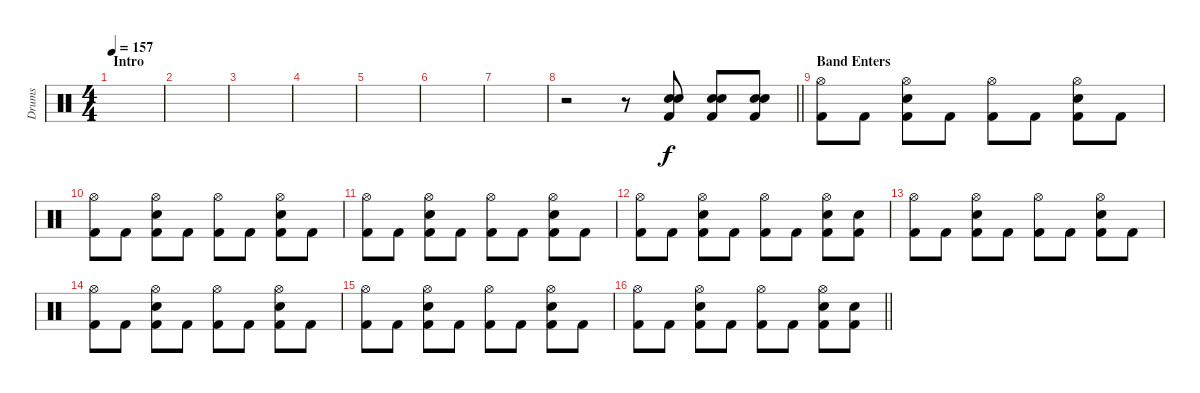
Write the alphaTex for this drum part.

\track ("Drums" "Drums") {instrument percussion}
\staff {score}
\articulation defaults
\ts (4 4)
\section ("" "Intro")
\tempo 157
\clef neutral
\ks c
|
|
|
|
|
|
|
\barLineRight lightlight
r.2 r.8 ("Kick (hit) 2" "Electric Snare (hit)" "Electric Snare (hit)").8 ("Kick (hit) 2" "Electric Snare (hit)" "Electric Snare (hit)").8 ("Kick (hit) 2" "Electric Snare (hit)" "Electric Snare (hit)").8 |
\section ("" "Band Enters")
("Hi-Hat (open)" "Kick (hit) 2").8 "Kick (hit) 2".8 ("Hi-Hat (open)" "Electric Snare (hit)" "Kick (hit) 2").8 "Kick (hit) 2".8 ("Hi-Hat (open)" "Kick (hit) 2").8 "Kick (hit) 2".8 ("Hi-Hat (open)" "Kick (hit) 2" "Electric Snare (hit)").8 "Kick (hit) 2".8 |
("Hi-Hat (open)" "Kick (hit) 2").8 "Kick (hit) 2".8 ("Hi-Hat (open)" "Electric Snare (hit)" "Kick (hit) 2").8 "Kick (hit) 2".8 ("Hi-Hat (open)" "Kick (hit) 2").8 "Kick (hit) 2".8 ("Hi-Hat (open)" "Kick (hit) 2" "Electric Snare (hit)").8 "Kick (hit) 2".8 |
("Hi-Hat (open)" "Kick (hit) 2").8 "Kick (hit) 2".8 ("Hi-Hat (open)" "Electric Snare (hit)" "Kick (hit) 2").8 "Kick (hit) 2".8 ("Hi-Hat (open)" "Kick (hit) 2").8 "Kick (hit) 2".8 ("Hi-Hat (open)" "Kick (hit) 2" "Electric Snare (hit)").8 "Kick (hit) 2".8 |
("Hi-Hat (open)" "Kick (hit) 2").8 "Kick (hit) 2".8 ("Hi-Hat (open)" "Electric Snare (hit)" "Kick (hit) 2").8 "Kick (hit) 2".8 ("Hi-Hat (open)" "Kick (hit) 2").8 "Kick (hit) 2".8 ("Hi-Hat (open)" "Kick (hit) 2" "Electric Snare (hit)").8 ("Electric Snare (hit)" "Kick (hit) 2").8 |
("Hi-Hat (open)" "Kick (hit) 2").8 "Kick (hit) 2".8 ("Hi-Hat (open)" "Electric Snare (hit)" "Kick (hit) 2").8 "Kick (hit) 2".8 ("Hi-Hat (open)" "Kick (hit) 2").8 "Kick (hit) 2".8 ("Hi-Hat (open)" "Kick (hit) 2" "Electric Snare (hit)").8 "Kick (hit) 2".8 |
("Hi-Hat (open)" "Kick (hit) 2").8 "Kick (hit) 2".8 ("Hi-Hat (open)" "Electric Snare (hit)" "Kick (hit) 2").8 "Kick (hit) 2".8 ("Hi-Hat (open)" "Kick (hit) 2").8 "Kick (hit) 2".8 ("Hi-Hat (open)" "Kick (hit) 2" "Electric Snare (hit)").8 "Kick (hit) 2".8 |
("Hi-Hat (open)" "Kick (hit) 2").8 "Kick (hit) 2".8 ("Hi-Hat (open)" "Electric Snare (hit)" "Kick (hit) 2").8 "Kick (hit) 2".8 ("Hi-Hat (open)" "Kick (hit) 2").8 "Kick (hit) 2".8 ("Hi-Hat (open)" "Kick (hit) 2" "Electric Snare (hit)").8 "Kick (hit) 2".8 |
\barLineRight lightlight
("Hi-Hat (open)" "Kick (hit) 2").8 "Kick (hit) 2".8 ("Hi-Hat (open)" "Electric Snare (hit)" "Kick (hit) 2").8 "Kick (hit) 2".8 ("Hi-Hat (open)" "Kick (hit) 2").8 "Kick (hit) 2".8 ("Hi-Hat (open)" "Kick (hit) 2" "Electric Snare (hit)").8 ("Electric Snare (hit)" "Kick (hit) 2").8
